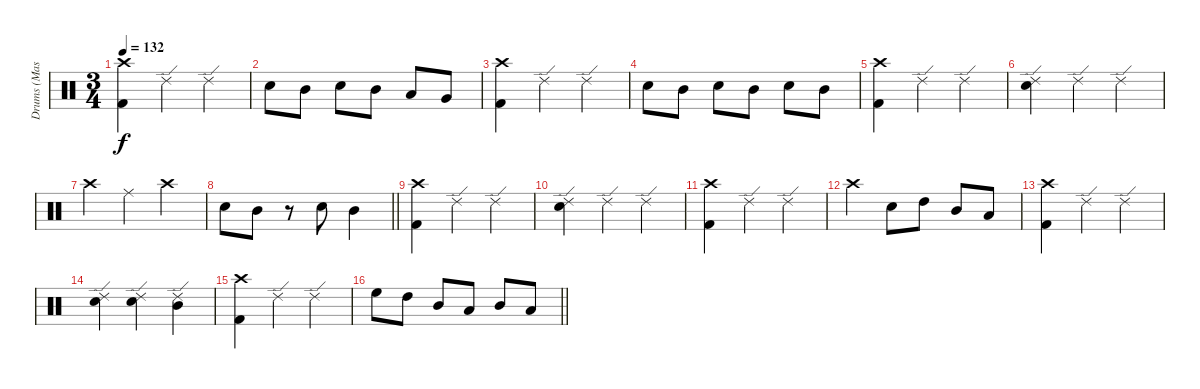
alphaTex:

\track ("Drums (Mason)" "Drums (Mas") {instrument percussion}
\staff {score}
\articulation defaults
\ts (3 4)
\tempo 132
\clef neutral
\ks c
("Crash high (hit)" "Kick (hit) 2").4{dy f} "Ride (edge) 2".4 "Ride (edge) 2".4 |
"Snare (hit) 2".8 "Mid Tom (hit)".8 "Snare (hit) 2".8 "Mid Tom (hit)".8 "Low Tom (hit)".8 "Very Low Tom (hit)".8 |
("Crash high (hit)" "Kick (hit) 2").4 "Ride (edge) 2".4 "Ride (edge) 2".4 |
"Snare (hit) 2".8 "Mid Tom (hit)".8 "Snare (hit) 2".8 "Mid Tom (hit)".8 "Snare (hit) 2".8 "Mid Tom (hit)".8 |
("Crash high (hit)" "Kick (hit) 2").4 "Ride (edge) 2".4 "Ride (edge) 2".4 |
("Snare (hit) 2" "Ride (edge) 2").4 "Ride (edge) 2".4 "Ride (edge) 2".4 |
"Crash high (hit)".4 "Ride (middle)".4 "Crash high (hit)".4 |
\barLineRight lightlight "Snare (hit) 2".8 "Mid Tom (hit)".8
r.8 "Snare (hit) 2".8 "Mid Tom (hit)".4 |
\section ("" "")
("Crash high (hit)" "Kick (hit) 2").4 "Ride (edge) 2".4 "Ride (edge) 2".4 |
("Snare (hit) 2" "Ride (edge) 2").4 "Ride (edge) 2".4 "Ride (edge) 2".4 |
("Crash high (hit)" "Kick (hit) 2").4 "Ride (edge) 2".4 "Ride (edge) 2".4 |
"Crash high (hit)".4 "Snare (hit) 2".8 "High Tom (hit)".8 "Mid Tom (hit)".8 "Low Tom (hit)".8 |
("Crash high (hit)" "Kick (hit) 2").4 "Ride (edge) 2".4 "Ride (edge) 2".4 |
("Snare (hit) 2" "Ride (edge) 2").4 ("Snare (hit) 2" "Ride (edge) 2").4 ("Mid Tom (hit)" "Ride (edge) 2").4 |
("Crash high (hit)" "Kick (hit) 2").4 "Ride (edge) 2".4 "Ride (edge) 2".4 |
\barLineRight lightlight "High Floor Tom (hit)".8 "High Tom (hit)".8 "Mid Tom (hit)".8 "Low Tom (hit)".8 "Mid Tom (hit)".8 "Low Tom (hit)".8
